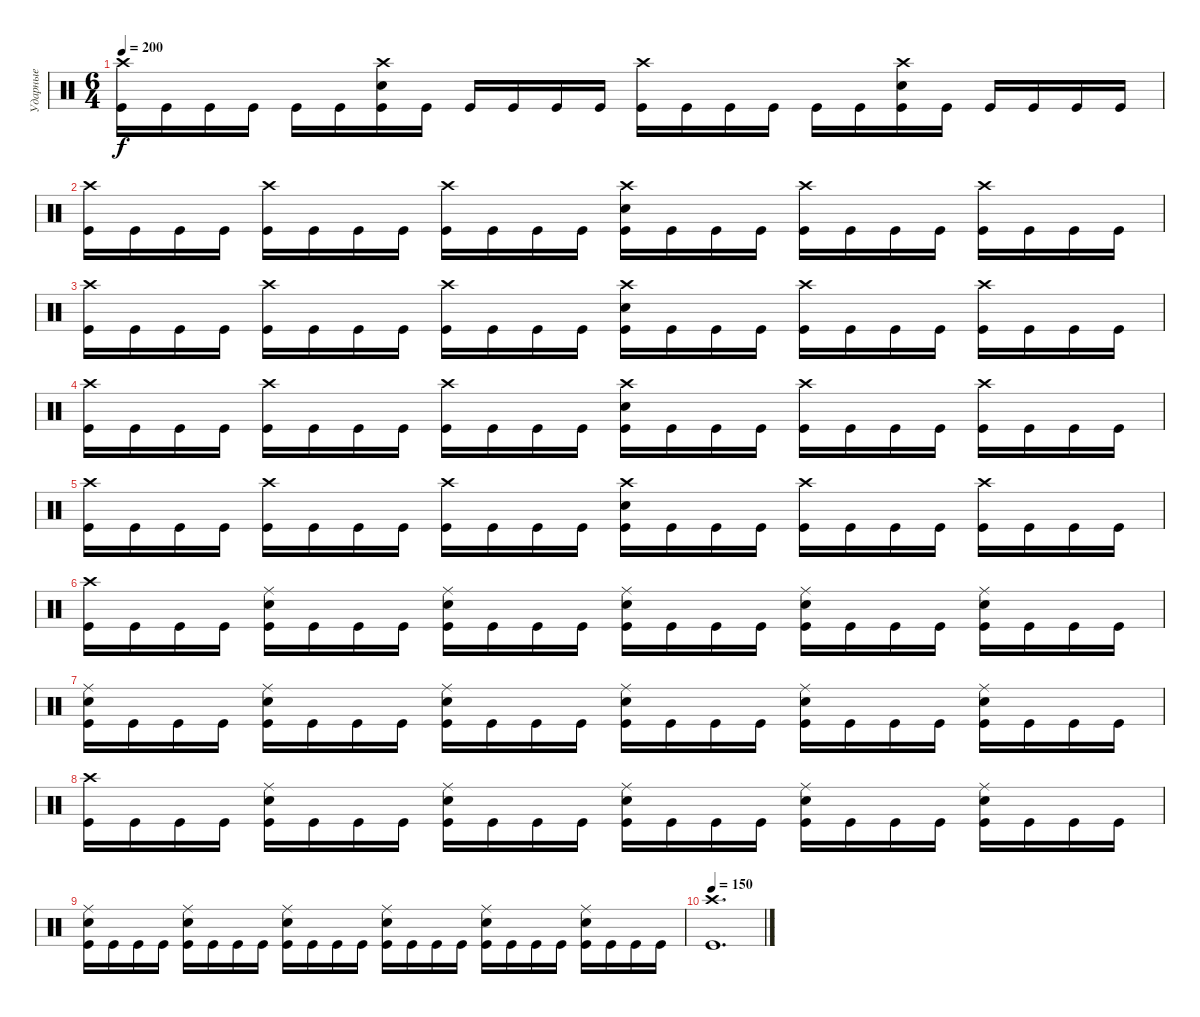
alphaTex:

\track ("Ударные" "Ударные") {instrument percussion}
\staff {score}
\articulation defaults
\ts (6 4)
\tempo 200
\clef neutral
\ks c
("Crash high (hit)" "Kick (hit)").16{dy f} "Kick (hit)".16 "Kick (hit)".16 "Kick (hit)".16 "Kick (hit)".16 "Kick (hit)".16 ("Crash high (hit)" "Snare (hit) 2" "Kick (hit)").16 "Kick (hit)".16 "Kick (hit)".16 "Kick (hit)".16 "Kick (hit)".16 "Kick (hit)".16 ("Crash high (hit)" "Kick (hit)").16 "Kick (hit)".16 "Kick (hit)".16 "Kick (hit)".16 "Kick (hit)".16 "Kick (hit)".16 ("Crash high (hit)" "Snare (hit) 2" "Kick (hit)").16 "Kick (hit)".16 "Kick (hit)".16 "Kick (hit)".16 "Kick (hit)".16 "Kick (hit)".16 |
("Crash high (hit)" "Kick (hit)").16 "Kick (hit)".16 "Kick (hit)".16 "Kick (hit)".16 ("Crash high (hit)" "Kick (hit)").16 "Kick (hit)".16 "Kick (hit)".16 "Kick (hit)".16 ("Crash high (hit)" "Kick (hit)").16 "Kick (hit)".16 "Kick (hit)".16 "Kick (hit)".16 ("Crash high (hit)" "Snare (hit) 2" "Kick (hit)").16 "Kick (hit)".16 "Kick (hit)".16 "Kick (hit)".16 ("Crash high (hit)" "Kick (hit)").16 "Kick (hit)".16 "Kick (hit)".16 "Kick (hit)".16 ("Crash high (hit)" "Kick (hit)").16 "Kick (hit)".16 "Kick (hit)".16 "Kick (hit)".16 |
("Crash high (hit)" "Kick (hit)").16 "Kick (hit)".16 "Kick (hit)".16 "Kick (hit)".16 ("Crash high (hit)" "Kick (hit)").16 "Kick (hit)".16 "Kick (hit)".16 "Kick (hit)".16 ("Crash high (hit)" "Kick (hit)").16 "Kick (hit)".16 "Kick (hit)".16 "Kick (hit)".16 ("Crash high (hit)" "Snare (hit) 2" "Kick (hit)").16 "Kick (hit)".16 "Kick (hit)".16 "Kick (hit)".16 ("Crash high (hit)" "Kick (hit)").16 "Kick (hit)".16 "Kick (hit)".16 "Kick (hit)".16 ("Crash high (hit)" "Kick (hit)").16 "Kick (hit)".16 "Kick (hit)".16 "Kick (hit)".16 |
("Crash high (hit)" "Kick (hit)").16 "Kick (hit)".16 "Kick (hit)".16 "Kick (hit)".16 ("Crash high (hit)" "Kick (hit)").16 "Kick (hit)".16 "Kick (hit)".16 "Kick (hit)".16 ("Crash high (hit)" "Kick (hit)").16 "Kick (hit)".16 "Kick (hit)".16 "Kick (hit)".16 ("Crash high (hit)" "Snare (hit) 2" "Kick (hit)").16 "Kick (hit)".16 "Kick (hit)".16 "Kick (hit)".16 ("Crash high (hit)" "Kick (hit)").16 "Kick (hit)".16 "Kick (hit)".16 "Kick (hit)".16 ("Crash high (hit)" "Kick (hit)").16 "Kick (hit)".16 "Kick (hit)".16 "Kick (hit)".16 |
("Crash high (hit)" "Kick (hit)").16 "Kick (hit)".16 "Kick (hit)".16 "Kick (hit)".16 ("Crash high (hit)" "Kick (hit)").16 "Kick (hit)".16 "Kick (hit)".16 "Kick (hit)".16 ("Crash high (hit)" "Kick (hit)").16 "Kick (hit)".16 "Kick (hit)".16 "Kick (hit)".16 ("Crash high (hit)" "Snare (hit) 2" "Kick (hit)").16 "Kick (hit)".16 "Kick (hit)".16 "Kick (hit)".16 ("Crash high (hit)" "Kick (hit)").16 "Kick (hit)".16 "Kick (hit)".16 "Kick (hit)".16 ("Crash high (hit)" "Kick (hit)").16 "Kick (hit)".16 "Kick (hit)".16 "Kick (hit)".16 |
("Crash high (hit)" "Kick (hit)").16 "Kick (hit)".16 "Kick (hit)".16 "Kick (hit)".16 ("Ride (middle)" "Snare (hit) 2" "Kick (hit)").16 "Kick (hit)".16 "Kick (hit)".16 "Kick (hit)".16 ("Ride (middle)" "Snare (hit) 2" "Kick (hit)").16 "Kick (hit)".16 "Kick (hit)".16 "Kick (hit)".16 ("Ride (middle)" "Snare (hit) 2" "Kick (hit)").16 "Kick (hit)".16 "Kick (hit)".16 "Kick (hit)".16 ("Ride (middle)" "Snare (hit) 2" "Kick (hit)").16 "Kick (hit)".16 "Kick (hit)".16 "Kick (hit)".16 ("Ride (middle)" "Snare (hit) 2" "Kick (hit)").16 "Kick (hit)".16 "Kick (hit)".16 "Kick (hit)".16 |
("Ride (middle)" "Snare (hit) 2" "Kick (hit)").16 "Kick (hit)".16 "Kick (hit)".16 "Kick (hit)".16 ("Ride (middle)" "Snare (hit) 2" "Kick (hit)").16 "Kick (hit)".16 "Kick (hit)".16 "Kick (hit)".16 ("Ride (middle)" "Snare (hit) 2" "Kick (hit)").16 "Kick (hit)".16 "Kick (hit)".16 "Kick (hit)".16 ("Ride (middle)" "Snare (hit) 2" "Kick (hit)").16 "Kick (hit)".16 "Kick (hit)".16 "Kick (hit)".16 ("Ride (middle)" "Snare (hit) 2" "Kick (hit)").16 "Kick (hit)".16 "Kick (hit)".16 "Kick (hit)".16 ("Ride (middle)" "Snare (hit) 2" "Kick (hit)").16 "Kick (hit)".16 "Kick (hit)".16 "Kick (hit)".16 |
("Crash high (hit)" "Kick (hit)").16 "Kick (hit)".16 "Kick (hit)".16 "Kick (hit)".16 ("Ride (middle)" "Snare (hit) 2" "Kick (hit)").16 "Kick (hit)".16 "Kick (hit)".16 "Kick (hit)".16 ("Ride (middle)" "Snare (hit) 2" "Kick (hit)").16 "Kick (hit)".16 "Kick (hit)".16 "Kick (hit)".16 ("Ride (middle)" "Snare (hit) 2" "Kick (hit)").16 "Kick (hit)".16 "Kick (hit)".16 "Kick (hit)".16 ("Ride (middle)" "Snare (hit) 2" "Kick (hit)").16 "Kick (hit)".16 "Kick (hit)".16 "Kick (hit)".16 ("Ride (middle)" "Snare (hit) 2" "Kick (hit)").16 "Kick (hit)".16 "Kick (hit)".16 "Kick (hit)".16 |
("Ride (middle)" "Snare (hit) 2" "Kick (hit)").16 "Kick (hit)".16 "Kick (hit)".16 "Kick (hit)".16 ("Ride (middle)" "Snare (hit) 2" "Kick (hit)").16 "Kick (hit)".16 "Kick (hit)".16 "Kick (hit)".16 ("Ride (middle)" "Snare (hit) 2" "Kick (hit)").16 "Kick (hit)".16 "Kick (hit)".16 "Kick (hit)".16 ("Ride (middle)" "Snare (hit) 2" "Kick (hit)").16 "Kick (hit)".16 "Kick (hit)".16 "Kick (hit)".16 ("Ride (middle)" "Snare (hit) 2" "Kick (hit)").16 "Kick (hit)".16 "Kick (hit)".16 "Kick (hit)".16 ("Ride (middle)" "Snare (hit) 2" "Kick (hit)").16 "Kick (hit)".16 "Kick (hit)".16 "Kick (hit)".16 |
\tempo 150
("Crash high (hit)" "Kick (hit)").1{d}
